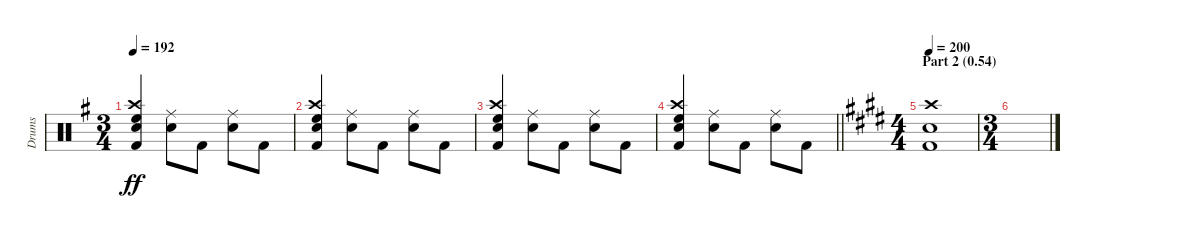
\track ("Drums" "Drums") {instrument percussion}
\staff {score}
\articulation defaults
\ts (3 4)
\tempo 192
\clef neutral
\ks g
("Kick (hit) 2" "Crash high (hit)" "High Floor Tom (hit)" "Electric Snare (hit)").4{dy ff} ("Ride (middle)" "Electric Snare (hit)").8 "Kick (hit) 2".8 ("Ride (middle)" "Electric Snare (hit)").8 "Kick (hit) 2".8 |
("Kick (hit) 2" "Crash high (hit)" "High Floor Tom (hit)" "Electric Snare (hit)").4 ("Ride (middle)" "Electric Snare (hit)").8 "Kick (hit) 2".8 ("Ride (middle)" "Electric Snare (hit)").8 "Kick (hit) 2".8 |
("Kick (hit) 2" "Crash high (hit)" "High Floor Tom (hit)" "Electric Snare (hit)").4 ("Ride (middle)" "Electric Snare (hit)").8 "Kick (hit) 2".8 ("Ride (middle)" "Electric Snare (hit)").8 "Kick (hit) 2".8 |
\barLineRight lightlight
("Kick (hit) 2" "Crash high (hit)" "High Floor Tom (hit)" "Electric Snare (hit)").4 ("Ride (middle)" "Electric Snare (hit)").8 "Kick (hit) 2".8 ("Ride (middle)" "Electric Snare (hit)").8 "Kick (hit) 2".8 |
\ts (4 4)
\section ("" "Part 2 (0.54)")
\tempo 200
\ks e
("Electric Snare (hit)" "Crash high (hit)" "Kick (hit) 2").1 |
\ts (3 4)
